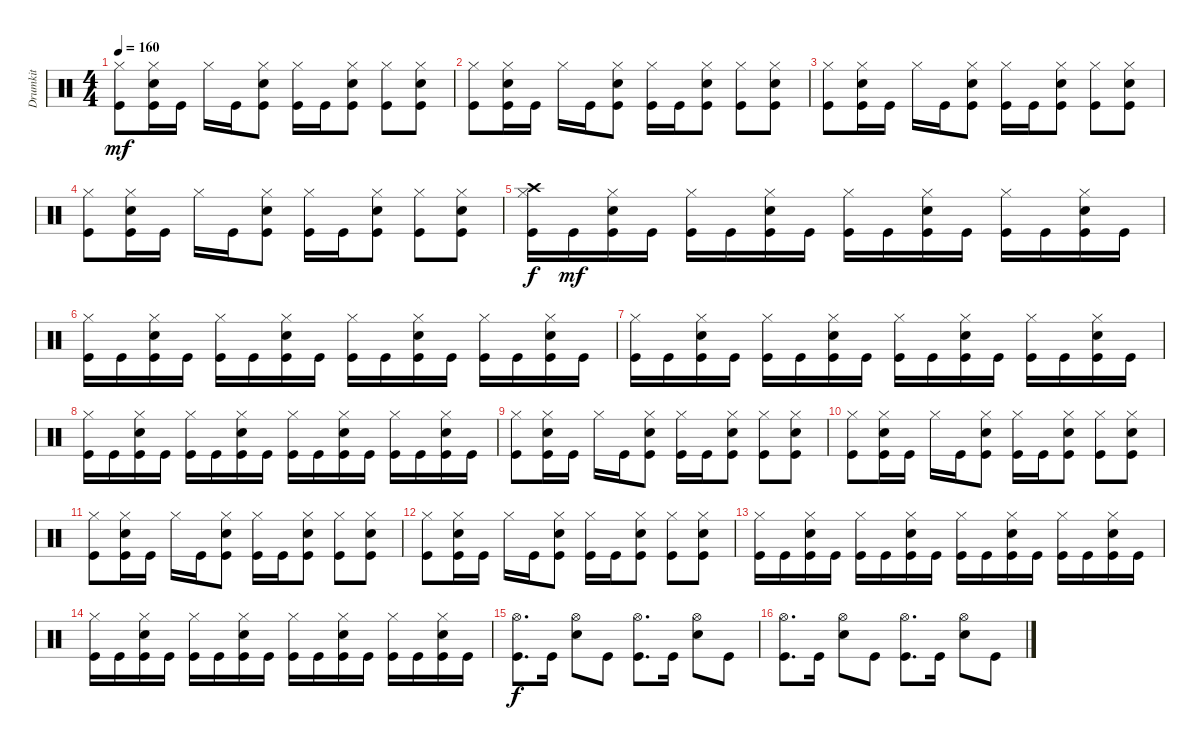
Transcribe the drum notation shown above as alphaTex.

\track ("Drumkit" "Drumkit") {instrument percussion}
\staff {score}
\articulation defaults
\ts (4 4)
\tempo 160
\clef neutral
\ks c
("Kick (hit)" "Hi-Hat (closed)").8{dy mf} ("Kick (hit)" "Snare (hit) 2" "Hi-Hat (closed)").16 "Kick (hit)".16 "Hi-Hat (closed)".16 "Kick (hit)".16 ("Kick (hit)" "Snare (hit) 2" "Hi-Hat (closed)").8 ("Kick (hit)" "Hi-Hat (closed)").16 "Kick (hit)".16 ("Kick (hit)" "Snare (hit) 2" "Hi-Hat (closed)").8 ("Kick (hit)" "Hi-Hat (closed)").8 ("Kick (hit)" "Snare (hit) 2" "Hi-Hat (closed)").8 |
("Kick (hit)" "Hi-Hat (closed)").8 ("Kick (hit)" "Snare (hit) 2" "Hi-Hat (closed)").16 "Kick (hit)".16 "Hi-Hat (closed)".16 "Kick (hit)".16 ("Kick (hit)" "Snare (hit) 2" "Hi-Hat (closed)").8 ("Kick (hit)" "Hi-Hat (closed)").16 "Kick (hit)".16 ("Kick (hit)" "Snare (hit) 2" "Hi-Hat (closed)").8 ("Kick (hit)" "Hi-Hat (closed)").8 ("Kick (hit)" "Snare (hit) 2" "Hi-Hat (closed)").8 |
("Kick (hit)" "Hi-Hat (closed)").8 ("Kick (hit)" "Snare (hit) 2" "Hi-Hat (closed)").16 "Kick (hit)".16 "Hi-Hat (closed)".16 "Kick (hit)".16 ("Kick (hit)" "Snare (hit) 2" "Hi-Hat (closed)").8 ("Kick (hit)" "Hi-Hat (closed)").16 "Kick (hit)".16 ("Kick (hit)" "Snare (hit) 2" "Hi-Hat (closed)").8 ("Kick (hit)" "Hi-Hat (closed)").8 ("Kick (hit)" "Snare (hit) 2" "Hi-Hat (closed)").8 |
("Kick (hit)" "Hi-Hat (closed)").8 ("Kick (hit)" "Snare (hit) 2" "Hi-Hat (closed)").16 "Kick (hit)".16 "Hi-Hat (closed)".16 "Kick (hit)".16 ("Kick (hit)" "Snare (hit) 2" "Hi-Hat (closed)").8 ("Kick (hit)" "Hi-Hat (closed)").16 "Kick (hit)".16 ("Kick (hit)" "Snare (hit) 2" "Hi-Hat (closed)").8 ("Kick (hit)" "Hi-Hat (closed)").8 ("Kick (hit)" "Snare (hit) 2" "Hi-Hat (closed)").8 |
("Crash high (hit)" "Kick (hit)" "Hi-Hat (closed)").16{dy f} "Kick (hit)".16{dy mf} ("Kick (hit)" "Snare (hit) 2" "Hi-Hat (closed)").16 "Kick (hit)".16 ("Kick (hit)" "Hi-Hat (closed)").16 "Kick (hit)".16 ("Kick (hit)" "Snare (hit) 2" "Hi-Hat (closed)").16 "Kick (hit)".16 ("Kick (hit)" "Hi-Hat (closed)").16 "Kick (hit)".16 ("Kick (hit)" "Snare (hit) 2" "Hi-Hat (closed)").16 "Kick (hit)".16 ("Kick (hit)" "Hi-Hat (closed)").16 "Kick (hit)".16 ("Kick (hit)" "Snare (hit) 2" "Hi-Hat (closed)").16 "Kick (hit)".16 |
("Kick (hit)" "Hi-Hat (closed)").16 "Kick (hit)".16 ("Kick (hit)" "Snare (hit) 2" "Hi-Hat (closed)").16 "Kick (hit)".16 ("Kick (hit)" "Hi-Hat (closed)").16 "Kick (hit)".16 ("Kick (hit)" "Snare (hit) 2" "Hi-Hat (closed)").16 "Kick (hit)".16 ("Kick (hit)" "Hi-Hat (closed)").16 "Kick (hit)".16 ("Kick (hit)" "Snare (hit) 2" "Hi-Hat (closed)").16 "Kick (hit)".16 ("Kick (hit)" "Hi-Hat (closed)").16 "Kick (hit)".16 ("Kick (hit)" "Snare (hit) 2" "Hi-Hat (closed)").16 "Kick (hit)".16 |
("Kick (hit)" "Hi-Hat (closed)").16 "Kick (hit)".16 ("Kick (hit)" "Snare (hit) 2" "Hi-Hat (closed)").16 "Kick (hit)".16 ("Kick (hit)" "Hi-Hat (closed)").16 "Kick (hit)".16 ("Kick (hit)" "Snare (hit) 2" "Hi-Hat (closed)").16 "Kick (hit)".16 ("Kick (hit)" "Hi-Hat (closed)").16 "Kick (hit)".16 ("Kick (hit)" "Snare (hit) 2" "Hi-Hat (closed)").16 "Kick (hit)".16 ("Kick (hit)" "Hi-Hat (closed)").16 "Kick (hit)".16 ("Kick (hit)" "Snare (hit) 2" "Hi-Hat (closed)").16 "Kick (hit)".16 |
("Kick (hit)" "Hi-Hat (closed)").16 "Kick (hit)".16 ("Kick (hit)" "Snare (hit) 2" "Hi-Hat (closed)").16 "Kick (hit)".16 ("Kick (hit)" "Hi-Hat (closed)").16 "Kick (hit)".16 ("Kick (hit)" "Snare (hit) 2" "Hi-Hat (closed)").16 "Kick (hit)".16 ("Kick (hit)" "Hi-Hat (closed)").16 "Kick (hit)".16 ("Kick (hit)" "Snare (hit) 2" "Hi-Hat (closed)").16 "Kick (hit)".16 ("Kick (hit)" "Hi-Hat (closed)").16 "Kick (hit)".16 ("Kick (hit)" "Snare (hit) 2" "Hi-Hat (closed)").16 "Kick (hit)".16 |
("Kick (hit)" "Hi-Hat (closed)").8 ("Kick (hit)" "Snare (hit) 2" "Hi-Hat (closed)").16 "Kick (hit)".16 "Hi-Hat (closed)".16 "Kick (hit)".16 ("Kick (hit)" "Snare (hit) 2" "Hi-Hat (closed)").8 ("Kick (hit)" "Hi-Hat (closed)").16 "Kick (hit)".16 ("Kick (hit)" "Snare (hit) 2" "Hi-Hat (closed)").8 ("Kick (hit)" "Hi-Hat (closed)").8 ("Kick (hit)" "Snare (hit) 2" "Hi-Hat (closed)").8 |
("Kick (hit)" "Hi-Hat (closed)").8 ("Kick (hit)" "Snare (hit) 2" "Hi-Hat (closed)").16 "Kick (hit)".16 "Hi-Hat (closed)".16 "Kick (hit)".16 ("Kick (hit)" "Snare (hit) 2" "Hi-Hat (closed)").8 ("Kick (hit)" "Hi-Hat (closed)").16 "Kick (hit)".16 ("Kick (hit)" "Snare (hit) 2" "Hi-Hat (closed)").8 ("Kick (hit)" "Hi-Hat (closed)").8 ("Kick (hit)" "Snare (hit) 2" "Hi-Hat (closed)").8 |
("Kick (hit)" "Hi-Hat (closed)").8 ("Kick (hit)" "Snare (hit) 2" "Hi-Hat (closed)").16 "Kick (hit)".16 "Hi-Hat (closed)".16 "Kick (hit)".16 ("Kick (hit)" "Snare (hit) 2" "Hi-Hat (closed)").8 ("Kick (hit)" "Hi-Hat (closed)").16 "Kick (hit)".16 ("Kick (hit)" "Snare (hit) 2" "Hi-Hat (closed)").8 ("Kick (hit)" "Hi-Hat (closed)").8 ("Kick (hit)" "Snare (hit) 2" "Hi-Hat (closed)").8 |
("Kick (hit)" "Hi-Hat (closed)").8 ("Kick (hit)" "Snare (hit) 2" "Hi-Hat (closed)").16 "Kick (hit)".16 "Hi-Hat (closed)".16 "Kick (hit)".16 ("Kick (hit)" "Snare (hit) 2" "Hi-Hat (closed)").8 ("Kick (hit)" "Hi-Hat (closed)").16 "Kick (hit)".16 ("Kick (hit)" "Snare (hit) 2" "Hi-Hat (closed)").8 ("Kick (hit)" "Hi-Hat (closed)").8 ("Kick (hit)" "Snare (hit) 2" "Hi-Hat (closed)").8 |
("Kick (hit)" "Hi-Hat (closed)").16 "Kick (hit)".16 ("Kick (hit)" "Snare (hit) 2" "Hi-Hat (closed)").16 "Kick (hit)".16 ("Kick (hit)" "Hi-Hat (closed)").16 "Kick (hit)".16 ("Kick (hit)" "Snare (hit) 2" "Hi-Hat (closed)").16 "Kick (hit)".16 ("Kick (hit)" "Hi-Hat (closed)").16 "Kick (hit)".16 ("Kick (hit)" "Snare (hit) 2" "Hi-Hat (closed)").16 "Kick (hit)".16 ("Kick (hit)" "Hi-Hat (closed)").16 "Kick (hit)".16 ("Kick (hit)" "Snare (hit) 2" "Hi-Hat (closed)").16 "Kick (hit)".16 |
("Kick (hit)" "Hi-Hat (closed)").16 "Kick (hit)".16 ("Kick (hit)" "Snare (hit) 2" "Hi-Hat (closed)").16 "Kick (hit)".16 ("Kick (hit)" "Hi-Hat (closed)").16 "Kick (hit)".16 ("Kick (hit)" "Snare (hit) 2" "Hi-Hat (closed)").16 "Kick (hit)".16 ("Kick (hit)" "Hi-Hat (closed)").16 "Kick (hit)".16 ("Kick (hit)" "Snare (hit) 2" "Hi-Hat (closed)").16 "Kick (hit)".16 ("Kick (hit)" "Hi-Hat (closed)").16 "Kick (hit)".16 ("Kick (hit)" "Snare (hit) 2" "Hi-Hat (closed)").16 "Kick (hit)".16 |
("Kick (hit)" "Hi-Hat (open)").8{d dy f} "Kick (hit)".16 ("Hi-Hat (open)" "Snare (hit) 2").8 "Kick (hit)".8 ("Kick (hit)" "Hi-Hat (open)").8{d} "Kick (hit)".16 ("Hi-Hat (open)" "Snare (hit) 2").8 "Kick (hit)".8 |
("Kick (hit)" "Hi-Hat (open)").8{d} "Kick (hit)".16 ("Hi-Hat (open)" "Snare (hit) 2").8 "Kick (hit)".8 ("Kick (hit)" "Hi-Hat (open)").8{d} "Kick (hit)".16 ("Hi-Hat (open)" "Snare (hit) 2").8 "Kick (hit)".8
